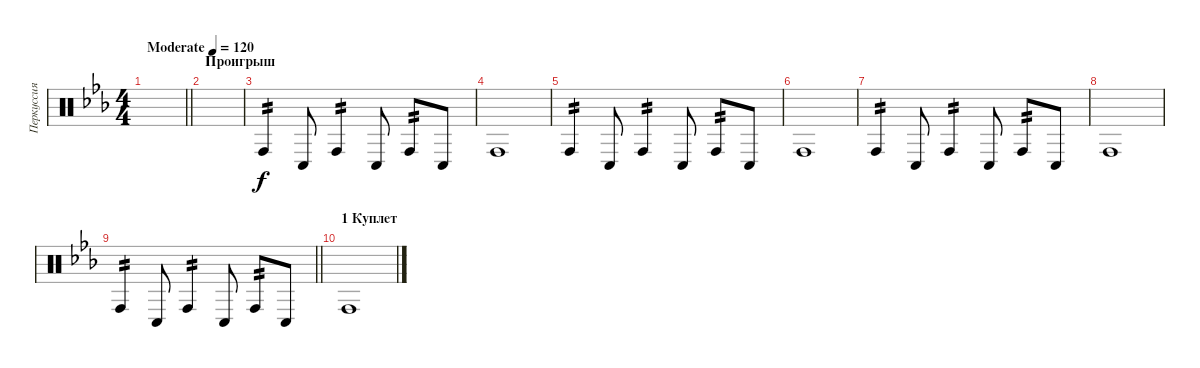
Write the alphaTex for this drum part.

\track ("Перкуссия" "Перкуссия") {instrument percussion}
\staff {score}
\articulation defaults
\ts (4 4)
\tempo (120 "Moderate")
\clef neutral
\barLineRight lightlight
\ks cminor
|
\section ("" "Проигрыш")
|
"Conga high (hit)".4{tp 2} "Conga low (hit)".8 "Conga high (hit)".4{tp 2} "Conga low (hit)".8 "Conga high (hit)".8{tp 2} "Conga low (hit)".8 |
"Conga high (hit)".1 |
"Conga high (hit)".4{tp 2} "Conga low (hit)".8 "Conga high (hit)".4{tp 2} "Conga low (hit)".8 "Conga high (hit)".8{tp 2} "Conga low (hit)".8 |
"Conga high (hit)".1 |
"Conga high (hit)".4{tp 2} "Conga low (hit)".8 "Conga high (hit)".4{tp 2} "Conga low (hit)".8 "Conga high (hit)".8{tp 2} "Conga low (hit)".8 |
"Conga high (hit)".1 |
\barLineRight lightlight "Conga high (hit)".4{tp 2} "Conga low (hit)".8 "Conga high (hit)".4{tp 2} "Conga low (hit)".8 "Conga high (hit)".8{tp 2} "Conga low (hit)".8
|
\section ("" "1 Куплет")
"Conga high (hit)".1
